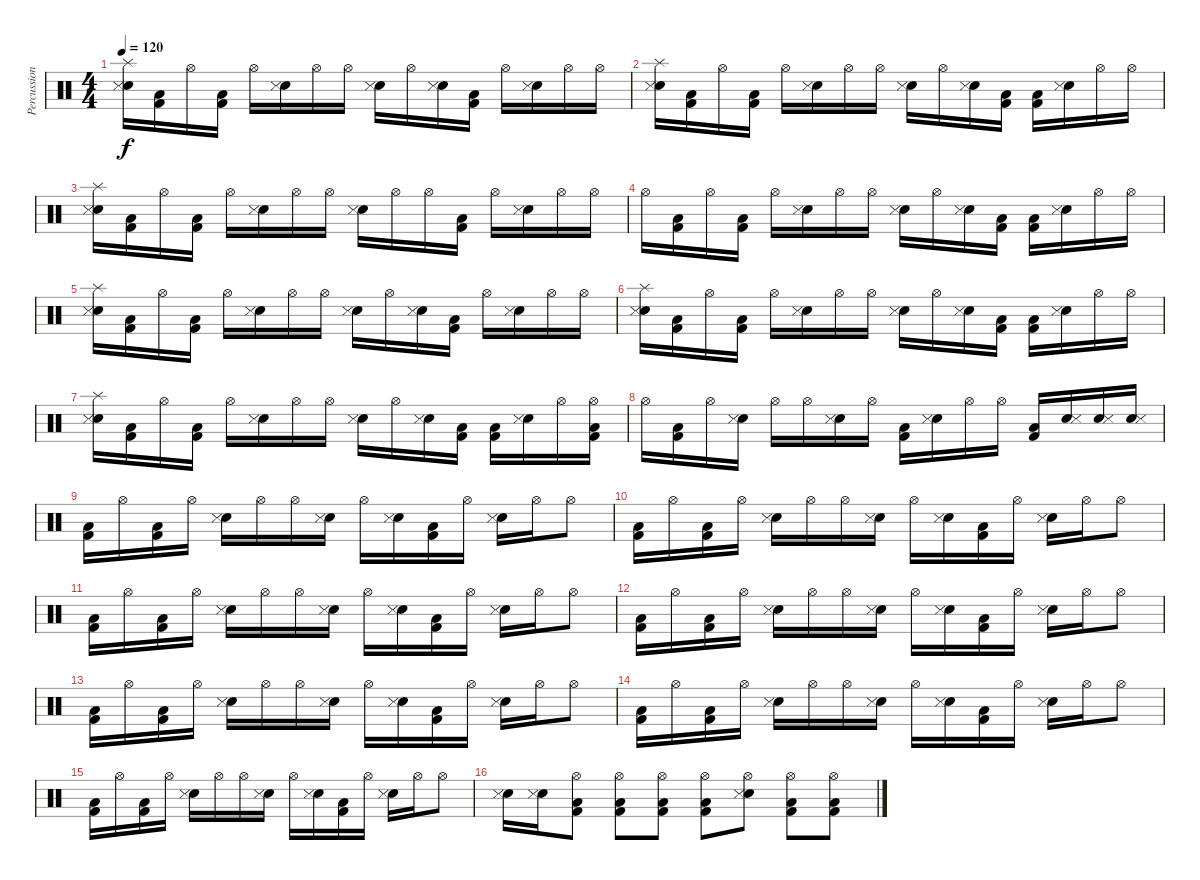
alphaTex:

\track ("Percussions" "Percussion") {instrument percussion}
\staff {score}
\articulation defaults
\ts (4 4)
\tempo 120
\clef neutral
\ks c
("Splash (hit)" "Snare (hit) 2" "Snare (side stick) 3").16{dy f} ("Kick (hit) 2" "Low Floor Tom (hit)").16 "Hi-Hat (open)".16 ("Kick (hit) 2" "Low Floor Tom (hit)").16 "Hi-Hat (open)".16 ("Snare (hit) 2" "Snare (side stick) 3").16 "Hi-Hat (open)".16 "Hi-Hat (open)".16 ("Snare (hit) 2" "Snare (side stick) 3").16 "Hi-Hat (open)".16 ("Snare (hit) 2" "Snare (side stick) 3").16 ("Kick (hit) 2" "Low Floor Tom (hit)").16 "Hi-Hat (open)".16 ("Snare (hit) 2" "Snare (side stick) 3").16 "Hi-Hat (open)".16 "Hi-Hat (open)".16 |
("Splash (hit)" "Snare (hit) 2" "Snare (side stick) 3").16 ("Kick (hit) 2" "Low Floor Tom (hit)").16 "Hi-Hat (open)".16 ("Kick (hit) 2" "Low Floor Tom (hit)").16 "Hi-Hat (open)".16 ("Snare (hit) 2" "Snare (side stick) 3").16 "Hi-Hat (open)".16 "Hi-Hat (open)".16 ("Snare (hit) 2" "Snare (side stick) 3").16 "Hi-Hat (open)".16 ("Snare (hit) 2" "Snare (side stick) 3").16 ("Kick (hit) 2" "Low Floor Tom (hit)").16 ("Kick (hit) 2" "Low Floor Tom (hit)").16 ("Snare (hit) 2" "Snare (side stick) 3").16 "Hi-Hat (open)".16 "Hi-Hat (open)".16 |
("Splash (hit)" "Snare (hit) 2" "Snare (side stick) 3").16 ("Kick (hit) 2" "Low Floor Tom (hit)").16 "Hi-Hat (open)".16 ("Kick (hit) 2" "Low Floor Tom (hit)").16 "Hi-Hat (open)".16 ("Snare (hit) 2" "Snare (side stick) 3").16 "Hi-Hat (open)".16 "Hi-Hat (open)".16 ("Snare (hit) 2" "Snare (side stick) 3").16 "Hi-Hat (open)".16 "Hi-Hat (open)".16 ("Kick (hit) 2" "Low Floor Tom (hit)").16 "Hi-Hat (open)".16 ("Snare (hit) 2" "Snare (side stick) 3").16 "Hi-Hat (open)".16 "Hi-Hat (open)".16 |
"Hi-Hat (open)".16 ("Kick (hit) 2" "Low Floor Tom (hit)").16 "Hi-Hat (open)".16 ("Kick (hit) 2" "Low Floor Tom (hit)").16 "Hi-Hat (open)".16 ("Snare (hit) 2" "Snare (side stick) 3").16 "Hi-Hat (open)".16 "Hi-Hat (open)".16 ("Snare (hit) 2" "Snare (side stick) 3").16 "Hi-Hat (open)".16 ("Snare (hit) 2" "Snare (side stick) 3").16 ("Kick (hit) 2" "Low Floor Tom (hit)").16 ("Kick (hit) 2" "Low Floor Tom (hit)").16 ("Snare (hit) 2" "Snare (side stick) 3").16 "Hi-Hat (open)".16 "Hi-Hat (open)".16 |
("Splash (hit)" "Snare (hit) 2" "Snare (side stick) 3").16 ("Kick (hit) 2" "Low Floor Tom (hit)").16 "Hi-Hat (open)".16 ("Kick (hit) 2" "Low Floor Tom (hit)").16 "Hi-Hat (open)".16 ("Snare (hit) 2" "Snare (side stick) 3").16 "Hi-Hat (open)".16 "Hi-Hat (open)".16 ("Snare (hit) 2" "Snare (side stick) 3").16 "Hi-Hat (open)".16 ("Snare (hit) 2" "Snare (side stick) 3").16 ("Kick (hit) 2" "Low Floor Tom (hit)").16 "Hi-Hat (open)".16 ("Snare (hit) 2" "Snare (side stick) 3").16 "Hi-Hat (open)".16 "Hi-Hat (open)".16 |
("Splash (hit)" "Snare (hit) 2" "Snare (side stick) 3").16 ("Kick (hit) 2" "Low Floor Tom (hit)").16 "Hi-Hat (open)".16 ("Kick (hit) 2" "Low Floor Tom (hit)").16 "Hi-Hat (open)".16 ("Snare (hit) 2" "Snare (side stick) 3").16 "Hi-Hat (open)".16 "Hi-Hat (open)".16 ("Snare (hit) 2" "Snare (side stick) 3").16 "Hi-Hat (open)".16 ("Snare (hit) 2" "Snare (side stick) 3").16 ("Kick (hit) 2" "Low Floor Tom (hit)").16 ("Kick (hit) 2" "Low Floor Tom (hit)").16 ("Snare (hit) 2" "Snare (side stick) 3").16 "Hi-Hat (open)".16 "Hi-Hat (open)".16 |
("Splash (hit)" "Snare (hit) 2" "Snare (side stick) 3").16 ("Kick (hit) 2" "Low Floor Tom (hit)").16 "Hi-Hat (open)".16 ("Kick (hit) 2" "Low Floor Tom (hit)").16 "Hi-Hat (open)".16 ("Snare (hit) 2" "Snare (side stick) 3").16 "Hi-Hat (open)".16 "Hi-Hat (open)".16 ("Snare (hit) 2" "Snare (side stick) 3").16 "Hi-Hat (open)".16 ("Snare (hit) 2" "Snare (side stick) 3").16 ("Kick (hit) 2" "Low Floor Tom (hit)").16 ("Kick (hit) 2" "Low Floor Tom (hit)").16 ("Snare (hit) 2" "Snare (side stick) 3").16 "Hi-Hat (open)".16 ("Hi-Hat (open)" "Kick (hit) 2" "Low Floor Tom (hit)").16 |
"Hi-Hat (open)".16 ("Kick (hit) 2" "Low Floor Tom (hit)").16 "Hi-Hat (open)".16 ("Snare (hit) 2" "Snare (side stick) 3").16 "Hi-Hat (open)".16 "Hi-Hat (open)".16 ("Snare (hit) 2" "Snare (side stick) 3").16 "Hi-Hat (open)".16 ("Kick (hit) 2" "Low Floor Tom (hit)").16 ("Snare (hit) 2" "Snare (side stick) 3").16 "Hi-Hat (open)".16 "Hi-Hat (open)".16 ("Kick (hit) 2" "Low Floor Tom (hit)").16 ("Snare (hit) 2" "Snare (side stick) 3").16 ("Snare (hit) 2" "Snare (side stick) 3").16 ("Snare (hit) 2" "Snare (side stick) 3").16 |
("Kick (hit) 2" "Low Floor Tom (hit)").16 "Hi-Hat (open)".16 ("Kick (hit) 2" "Low Floor Tom (hit)").16 "Hi-Hat (open)".16 ("Snare (hit) 2" "Snare (side stick) 3").16 "Hi-Hat (open)".16 "Hi-Hat (open)".16 ("Snare (hit) 2" "Snare (side stick) 3").16 "Hi-Hat (open)".16 ("Snare (hit) 2" "Snare (side stick) 3").16 ("Kick (hit) 2" "Low Floor Tom (hit)").16 "Hi-Hat (open)".16 ("Snare (hit) 2" "Snare (side stick) 3").16 "Hi-Hat (open)".16 "Hi-Hat (open)".8 |
("Kick (hit) 2" "Low Floor Tom (hit)").16 "Hi-Hat (open)".16 ("Kick (hit) 2" "Low Floor Tom (hit)").16 "Hi-Hat (open)".16 ("Snare (hit) 2" "Snare (side stick) 3").16 "Hi-Hat (open)".16 "Hi-Hat (open)".16 ("Snare (hit) 2" "Snare (side stick) 3").16 "Hi-Hat (open)".16 ("Snare (hit) 2" "Snare (side stick) 3").16 ("Kick (hit) 2" "Low Floor Tom (hit)").16 "Hi-Hat (open)".16 ("Snare (hit) 2" "Snare (side stick) 3").16 "Hi-Hat (open)".16 "Hi-Hat (open)".8 |
("Kick (hit) 2" "Low Floor Tom (hit)").16 "Hi-Hat (open)".16 ("Kick (hit) 2" "Low Floor Tom (hit)").16 "Hi-Hat (open)".16 ("Snare (hit) 2" "Snare (side stick) 3").16 "Hi-Hat (open)".16 "Hi-Hat (open)".16 ("Snare (hit) 2" "Snare (side stick) 3").16 "Hi-Hat (open)".16 ("Snare (hit) 2" "Snare (side stick) 3").16 ("Kick (hit) 2" "Low Floor Tom (hit)").16 "Hi-Hat (open)".16 ("Snare (hit) 2" "Snare (side stick) 3").16 "Hi-Hat (open)".16 "Hi-Hat (open)".8 |
("Kick (hit) 2" "Low Floor Tom (hit)").16 "Hi-Hat (open)".16 ("Kick (hit) 2" "Low Floor Tom (hit)").16 "Hi-Hat (open)".16 ("Snare (hit) 2" "Snare (side stick) 3").16 "Hi-Hat (open)".16 "Hi-Hat (open)".16 ("Snare (hit) 2" "Snare (side stick) 3").16 "Hi-Hat (open)".16 ("Snare (hit) 2" "Snare (side stick) 3").16 ("Kick (hit) 2" "Low Floor Tom (hit)").16 "Hi-Hat (open)".16 ("Snare (hit) 2" "Snare (side stick) 3").16 "Hi-Hat (open)".16 "Hi-Hat (open)".8 |
("Kick (hit) 2" "Low Floor Tom (hit)").16 "Hi-Hat (open)".16 ("Kick (hit) 2" "Low Floor Tom (hit)").16 "Hi-Hat (open)".16 ("Snare (hit) 2" "Snare (side stick) 3").16 "Hi-Hat (open)".16 "Hi-Hat (open)".16 ("Snare (hit) 2" "Snare (side stick) 3").16 "Hi-Hat (open)".16 ("Snare (hit) 2" "Snare (side stick) 3").16 ("Kick (hit) 2" "Low Floor Tom (hit)").16 "Hi-Hat (open)".16 ("Snare (hit) 2" "Snare (side stick) 3").16 "Hi-Hat (open)".16 "Hi-Hat (open)".8 |
("Kick (hit) 2" "Low Floor Tom (hit)").16 "Hi-Hat (open)".16 ("Kick (hit) 2" "Low Floor Tom (hit)").16 "Hi-Hat (open)".16 ("Snare (hit) 2" "Snare (side stick) 3").16 "Hi-Hat (open)".16 "Hi-Hat (open)".16 ("Snare (hit) 2" "Snare (side stick) 3").16 "Hi-Hat (open)".16 ("Snare (hit) 2" "Snare (side stick) 3").16 ("Kick (hit) 2" "Low Floor Tom (hit)").16 "Hi-Hat (open)".16 ("Snare (hit) 2" "Snare (side stick) 3").16 "Hi-Hat (open)".16 "Hi-Hat (open)".8 |
("Kick (hit) 2" "Low Floor Tom (hit)").16 "Hi-Hat (open)".16 ("Kick (hit) 2" "Low Floor Tom (hit)").16 "Hi-Hat (open)".16 ("Snare (hit) 2" "Snare (side stick) 3").16 "Hi-Hat (open)".16 "Hi-Hat (open)".16 ("Snare (hit) 2" "Snare (side stick) 3").16 "Hi-Hat (open)".16 ("Snare (hit) 2" "Snare (side stick) 3").16 ("Kick (hit) 2" "Low Floor Tom (hit)").16 "Hi-Hat (open)".16 ("Snare (hit) 2" "Snare (side stick) 3").16 "Hi-Hat (open)".16 "Hi-Hat (open)".8 |
("Snare (hit) 2" "Snare (side stick) 3").16 ("Snare (hit) 2" "Snare (side stick) 3").16 ("Hi-Hat (open)" "Kick (hit) 2" "Low Floor Tom (hit)").8 ("Hi-Hat (open)" "Kick (hit) 2" "Low Floor Tom (hit)").8 ("Hi-Hat (open)" "Kick (hit) 2" "Low Floor Tom (hit)").8 ("Hi-Hat (open)" "Kick (hit) 2" "Low Floor Tom (hit)").8 ("Hi-Hat (open)" "Snare (hit) 2" "Snare (side stick) 3").8 ("Hi-Hat (open)" "Kick (hit) 2" "Low Floor Tom (hit)").8 ("Hi-Hat (open)" "Kick (hit) 2" "Low Floor Tom (hit)").8
